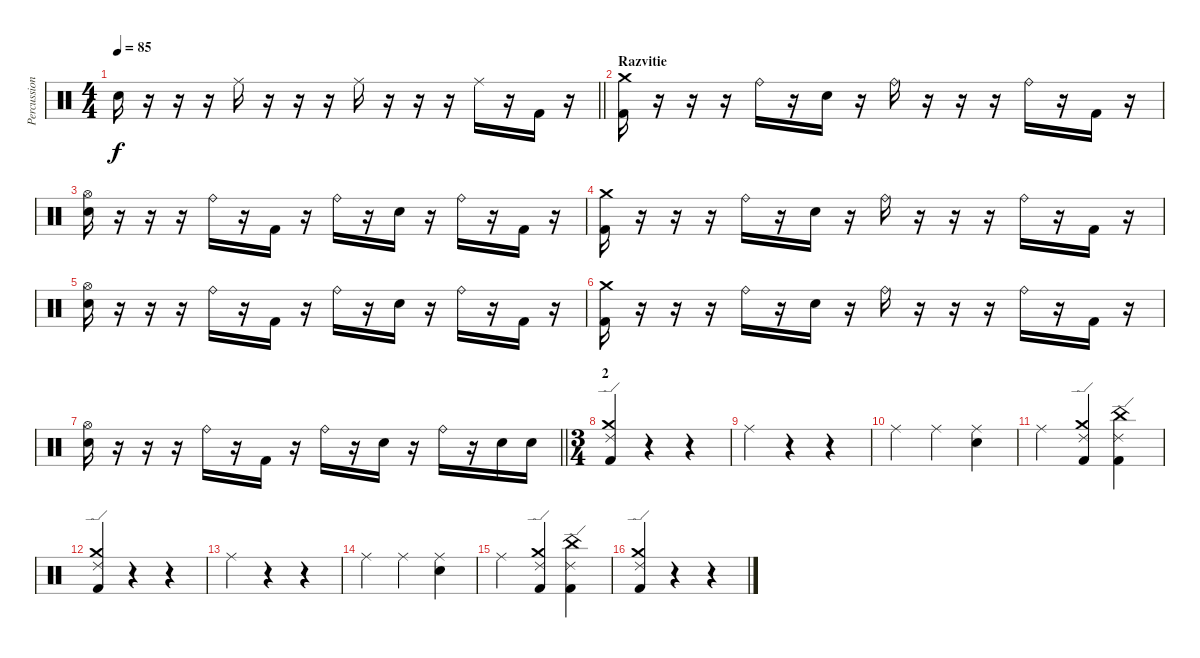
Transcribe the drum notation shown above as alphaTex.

\track ("Percussion" "Percussion") {instrument percussion}
\staff {score}
\articulation defaults
\ts (4 4)
\tempo 85
\clef neutral
\barLineRight lightlight
\ks c "Electric Snare (hit)".16{dy f}
r.16 r.16 r.16 "Ride (middle)".16 r.16 r.16 r.16 "Ride (middle)".16 r.16 r.16 r.16 "Ride (middle)".16 r.16 "Kick (hit) 2".16 r.16 |
\section ("" "Razvitie")
("Crash medium (hit)" "Kick (hit) 2").16 r.16 r.16 r.16 "Ride (bell)".16 r.16 "Electric Snare (hit)".16 r.16 "Ride (bell)".16 r.16 r.16 r.16 "Ride (bell)".16 r.16 "Kick (hit) 2".16 r.16 |
("Hi-Hat (open)" "Electric Snare (hit)").16 r.16 r.16 r.16 "Ride (bell)".16 r.16 "Kick (hit) 2".16 r.16 "Ride (bell)".16 r.16 "Electric Snare (hit)".16 r.16 "Ride (bell)".16 r.16 "Kick (hit) 2".16 r.16 |
("Crash medium (hit)" "Kick (hit) 2").16 r.16 r.16 r.16 "Ride (bell)".16 r.16 "Electric Snare (hit)".16 r.16 "Ride (bell)".16 r.16 r.16 r.16 "Ride (bell)".16 r.16 "Kick (hit) 2".16 r.16 |
("Hi-Hat (open)" "Electric Snare (hit)").16 r.16 r.16 r.16 "Ride (bell)".16 r.16 "Kick (hit) 2".16 r.16 "Ride (bell)".16 r.16 "Electric Snare (hit)".16 r.16 "Ride (bell)".16 r.16 "Kick (hit) 2".16 r.16 |
("Crash medium (hit)" "Kick (hit) 2").16 r.16 r.16 r.16 "Ride (bell)".16 r.16 "Electric Snare (hit)".16 r.16 "Ride (bell)".16 r.16 r.16 r.16 "Ride (bell)".16 r.16 "Kick (hit) 2".16 r.16 |
\barLineRight lightlight
("Hi-Hat (open)" "Electric Snare (hit)").16 r.16 r.16 r.16 "Ride (bell)".16 r.16 "Kick (hit) 2".16 r.16 "Ride (bell)".16 r.16 "Electric Snare (hit)".16 r.16 "Ride (bell)".16 r.16 "Electric Snare (hit)".16 "Electric Snare (hit)".16 |
\ts (3 4)
\section ("" "2")
("Crash medium (hit)" "Ride (edge) 2" "Kick (hit) 2").4 r.4 r.4 |
"Ride (middle)".4 r.4 r.4 |
"Ride (middle)".4 "Ride (middle)".4 ("Ride (middle)" "Electric Snare (hit)").4 |
"Ride (middle)".4 ("Crash medium (hit)" "Ride (edge) 2" "Kick (hit) 2").4 ("China (hit)" "Ride (edge) 2" "Kick (hit) 2").4 |
("Crash medium (hit)" "Ride (edge) 2" "Kick (hit) 2").4 r.4 r.4 |
"Ride (middle)".4 r.4 r.4 |
"Ride (middle)".4 "Ride (middle)".4 ("Ride (middle)" "Electric Snare (hit)").4 |
"Ride (middle)".4 ("Crash medium (hit)" "Ride (edge) 2" "Kick (hit) 2").4 ("China (hit)" "Ride (edge) 2" "Kick (hit) 2").4 |
("Crash medium (hit)" "Ride (edge) 2" "Kick (hit) 2").4 r.4 r.4
